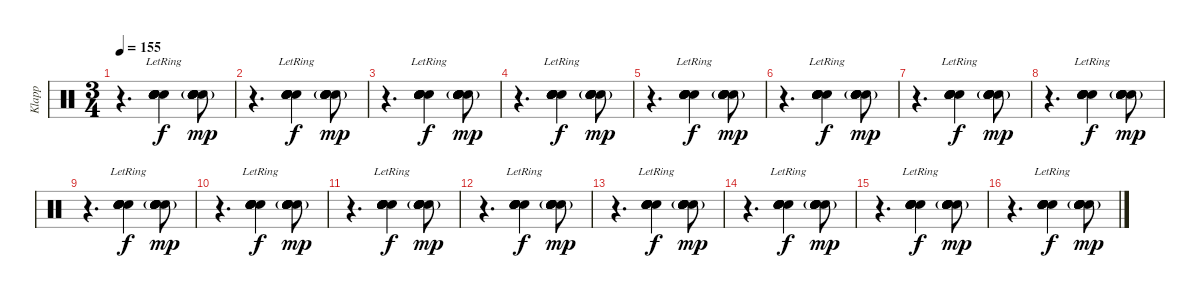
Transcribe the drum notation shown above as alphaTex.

\track ("Klapp" "Klapp") {instrument percussion}
\staff {score}
\articulation defaults
\ts (3 4)
\tempo 155
\clef neutral
\ks c
r.4{d dy mp} ("Hand Clap (hit)"{lr} "Hand Clap (hit)"{lr} "Hand Clap (hit)"{lr} "Hand Clap (hit)"{lr} "Hand Clap (hit)"{lr} "Hand Clap (hit)"{lr}).4{dy f} ("Hand Clap (hit)"{g} "Hand Clap (hit)"{g} "Hand Clap (hit)"{g} "Hand Clap (hit)"{g} "Hand Clap (hit)"{g} "Hand Clap (hit)"{g}).8{dy mp} |
r.4{d} ("Hand Clap (hit)"{lr} "Hand Clap (hit)"{lr} "Hand Clap (hit)"{lr} "Hand Clap (hit)"{lr} "Hand Clap (hit)"{lr} "Hand Clap (hit)"{lr}).4{dy f} ("Hand Clap (hit)"{g} "Hand Clap (hit)"{g} "Hand Clap (hit)"{g} "Hand Clap (hit)"{g} "Hand Clap (hit)"{g} "Hand Clap (hit)"{g}).8{dy mp} |
r.4{d} ("Hand Clap (hit)"{lr} "Hand Clap (hit)"{lr} "Hand Clap (hit)"{lr} "Hand Clap (hit)"{lr} "Hand Clap (hit)"{lr} "Hand Clap (hit)"{lr}).4{dy f} ("Hand Clap (hit)"{g} "Hand Clap (hit)"{g} "Hand Clap (hit)"{g} "Hand Clap (hit)"{g} "Hand Clap (hit)"{g} "Hand Clap (hit)"{g}).8{dy mp} |
r.4{d} ("Hand Clap (hit)"{lr} "Hand Clap (hit)"{lr} "Hand Clap (hit)"{lr} "Hand Clap (hit)"{lr} "Hand Clap (hit)"{lr} "Hand Clap (hit)"{lr}).4{dy f} ("Hand Clap (hit)"{g} "Hand Clap (hit)"{g} "Hand Clap (hit)"{g} "Hand Clap (hit)"{g} "Hand Clap (hit)"{g} "Hand Clap (hit)"{g}).8{dy mp} |
r.4{d} ("Hand Clap (hit)"{lr} "Hand Clap (hit)"{lr} "Hand Clap (hit)"{lr} "Hand Clap (hit)"{lr} "Hand Clap (hit)"{lr} "Hand Clap (hit)"{lr}).4{dy f} ("Hand Clap (hit)"{g} "Hand Clap (hit)"{g} "Hand Clap (hit)"{g} "Hand Clap (hit)"{g} "Hand Clap (hit)"{g} "Hand Clap (hit)"{g}).8{dy mp} |
r.4{d} ("Hand Clap (hit)"{lr} "Hand Clap (hit)"{lr} "Hand Clap (hit)"{lr} "Hand Clap (hit)"{lr} "Hand Clap (hit)"{lr} "Hand Clap (hit)"{lr}).4{dy f} ("Hand Clap (hit)"{g} "Hand Clap (hit)"{g} "Hand Clap (hit)"{g} "Hand Clap (hit)"{g} "Hand Clap (hit)"{g} "Hand Clap (hit)"{g}).8{dy mp} |
r.4{d} ("Hand Clap (hit)"{lr} "Hand Clap (hit)"{lr} "Hand Clap (hit)"{lr} "Hand Clap (hit)"{lr} "Hand Clap (hit)"{lr} "Hand Clap (hit)"{lr}).4{dy f} ("Hand Clap (hit)"{g} "Hand Clap (hit)"{g} "Hand Clap (hit)"{g} "Hand Clap (hit)"{g} "Hand Clap (hit)"{g} "Hand Clap (hit)"{g}).8{dy mp} |
r.4{d} ("Hand Clap (hit)"{lr} "Hand Clap (hit)"{lr} "Hand Clap (hit)"{lr} "Hand Clap (hit)"{lr} "Hand Clap (hit)"{lr} "Hand Clap (hit)"{lr}).4{dy f} ("Hand Clap (hit)"{g} "Hand Clap (hit)"{g} "Hand Clap (hit)"{g} "Hand Clap (hit)"{g} "Hand Clap (hit)"{g} "Hand Clap (hit)"{g}).8{dy mp} |
r.4{d} ("Hand Clap (hit)"{lr} "Hand Clap (hit)"{lr} "Hand Clap (hit)"{lr} "Hand Clap (hit)"{lr} "Hand Clap (hit)"{lr} "Hand Clap (hit)"{lr}).4{dy f} ("Hand Clap (hit)"{g} "Hand Clap (hit)"{g} "Hand Clap (hit)"{g} "Hand Clap (hit)"{g} "Hand Clap (hit)"{g} "Hand Clap (hit)"{g}).8{dy mp} |
r.4{d} ("Hand Clap (hit)"{lr} "Hand Clap (hit)"{lr} "Hand Clap (hit)"{lr} "Hand Clap (hit)"{lr} "Hand Clap (hit)"{lr} "Hand Clap (hit)"{lr}).4{dy f} ("Hand Clap (hit)"{g} "Hand Clap (hit)"{g} "Hand Clap (hit)"{g} "Hand Clap (hit)"{g} "Hand Clap (hit)"{g} "Hand Clap (hit)"{g}).8{dy mp} |
r.4{d} ("Hand Clap (hit)"{lr} "Hand Clap (hit)"{lr} "Hand Clap (hit)"{lr} "Hand Clap (hit)"{lr} "Hand Clap (hit)"{lr} "Hand Clap (hit)"{lr}).4{dy f} ("Hand Clap (hit)"{g} "Hand Clap (hit)"{g} "Hand Clap (hit)"{g} "Hand Clap (hit)"{g} "Hand Clap (hit)"{g} "Hand Clap (hit)"{g}).8{dy mp} |
r.4{d} ("Hand Clap (hit)"{lr} "Hand Clap (hit)"{lr} "Hand Clap (hit)"{lr} "Hand Clap (hit)"{lr} "Hand Clap (hit)"{lr} "Hand Clap (hit)"{lr}).4{dy f} ("Hand Clap (hit)"{g} "Hand Clap (hit)"{g} "Hand Clap (hit)"{g} "Hand Clap (hit)"{g} "Hand Clap (hit)"{g} "Hand Clap (hit)"{g}).8{dy mp} |
r.4{d} ("Hand Clap (hit)"{lr} "Hand Clap (hit)"{lr} "Hand Clap (hit)"{lr} "Hand Clap (hit)"{lr} "Hand Clap (hit)"{lr} "Hand Clap (hit)"{lr}).4{dy f} ("Hand Clap (hit)"{g} "Hand Clap (hit)"{g} "Hand Clap (hit)"{g} "Hand Clap (hit)"{g} "Hand Clap (hit)"{g} "Hand Clap (hit)"{g}).8{dy mp} |
r.4{d} ("Hand Clap (hit)"{lr} "Hand Clap (hit)"{lr} "Hand Clap (hit)"{lr} "Hand Clap (hit)"{lr} "Hand Clap (hit)"{lr} "Hand Clap (hit)"{lr}).4{dy f} ("Hand Clap (hit)"{g} "Hand Clap (hit)"{g} "Hand Clap (hit)"{g} "Hand Clap (hit)"{g} "Hand Clap (hit)"{g} "Hand Clap (hit)"{g}).8{dy mp} |
r.4{d} ("Hand Clap (hit)"{lr} "Hand Clap (hit)"{lr} "Hand Clap (hit)"{lr} "Hand Clap (hit)"{lr} "Hand Clap (hit)"{lr} "Hand Clap (hit)"{lr}).4{dy f} ("Hand Clap (hit)"{g} "Hand Clap (hit)"{g} "Hand Clap (hit)"{g} "Hand Clap (hit)"{g} "Hand Clap (hit)"{g} "Hand Clap (hit)"{g}).8{dy mp} |
r.4{d} ("Hand Clap (hit)"{lr} "Hand Clap (hit)"{lr} "Hand Clap (hit)"{lr} "Hand Clap (hit)"{lr} "Hand Clap (hit)"{lr} "Hand Clap (hit)"{lr}).4{dy f} ("Hand Clap (hit)"{g} "Hand Clap (hit)"{g} "Hand Clap (hit)"{g} "Hand Clap (hit)"{g} "Hand Clap (hit)"{g} "Hand Clap (hit)"{g}).8{dy mp}
